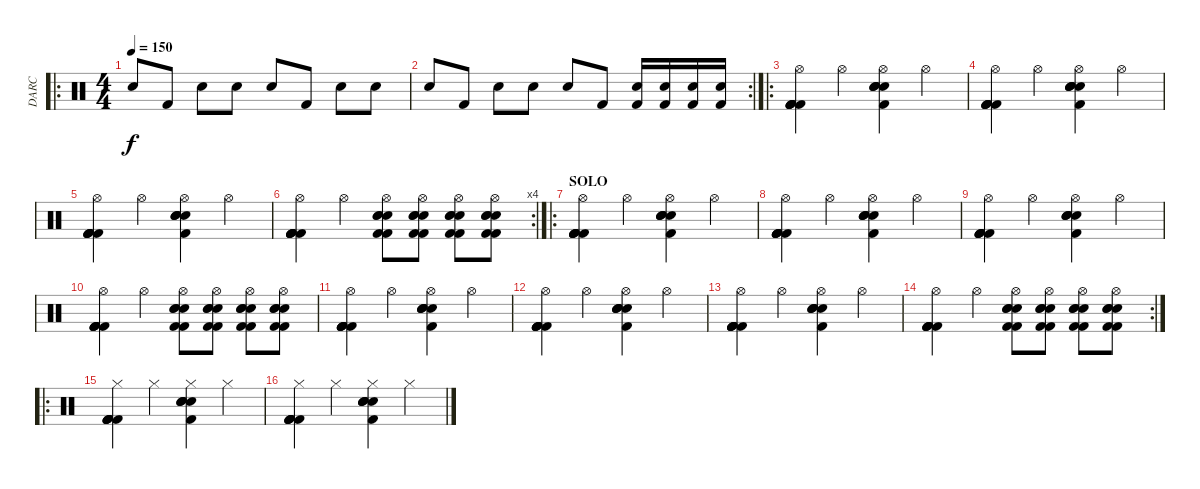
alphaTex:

\track ("DARC" "DARC") {instrument percussion}
\staff {score}
\articulation defaults
\ro
\ts (4 4)
\tempo 150
\clef neutral
\ks c "Electric Snare (hit)".8{dy f} "Kick (hit) 2".8 "Electric Snare (hit)".8 "Electric Snare (hit)".8 "Electric Snare (hit)".8 "Kick (hit) 2".8 "Electric Snare (hit)".8 "Electric Snare (hit)".8
|
\rc 2 "Electric Snare (hit)".8 "Kick (hit) 2".8 "Electric Snare (hit)".8 "Electric Snare (hit)".8 "Electric Snare (hit)".8 "Kick (hit) 2".8
("Kick (hit) 2" "Electric Snare (hit)").16 ("Kick (hit) 2" "Electric Snare (hit)").16 ("Kick (hit) 2" "Electric Snare (hit)").16 ("Kick (hit) 2" "Electric Snare (hit)").16 |
\ro
("Hi-Hat (open)" "Kick (hit) 2" "Kick (hit) 2" "Kick (hit) 2" "Kick (hit) 2" "Kick (hit) 2").4 "Hi-Hat (open)".4 ("Hi-Hat (open)" "Electric Snare (hit)" "Electric Snare (hit)" "Electric Snare (hit)" "Electric Snare (hit)" "Kick (hit) 2").4 "Hi-Hat (open)".4 |
("Hi-Hat (open)" "Kick (hit) 2" "Kick (hit) 2" "Kick (hit) 2" "Kick (hit) 2" "Kick (hit) 2").4 "Hi-Hat (open)".4 ("Hi-Hat (open)" "Electric Snare (hit)" "Electric Snare (hit)" "Electric Snare (hit)" "Electric Snare (hit)" "Kick (hit) 2").4 "Hi-Hat (open)".4 |
("Hi-Hat (open)" "Kick (hit) 2" "Kick (hit) 2" "Kick (hit) 2" "Kick (hit) 2" "Kick (hit) 2").4 "Hi-Hat (open)".4 ("Hi-Hat (open)" "Electric Snare (hit)" "Electric Snare (hit)" "Electric Snare (hit)" "Electric Snare (hit)" "Kick (hit) 2").4 "Hi-Hat (open)".4 |
\rc 4
("Hi-Hat (open)" "Kick (hit) 2" "Kick (hit) 2" "Kick (hit) 2" "Kick (hit) 2" "Kick (hit) 2").4 "Hi-Hat (open)".4 ("Hi-Hat (open)" "Electric Snare (hit)" "Electric Snare (hit)" "Electric Snare (hit)" "Kick (hit) 2" "Kick (hit) 2").8 ("Hi-Hat (open)" "Electric Snare (hit)" "Electric Snare (hit)" "Electric Snare (hit)" "Kick (hit) 2" "Kick (hit) 2").8 ("Hi-Hat (open)" "Electric Snare (hit)" "Electric Snare (hit)" "Electric Snare (hit)" "Kick (hit) 2" "Kick (hit) 2").8 ("Hi-Hat (open)" "Electric Snare (hit)" "Electric Snare (hit)" "Electric Snare (hit)" "Kick (hit) 2" "Kick (hit) 2").8 |
\ro
\section ("" "SOLO")
("Hi-Hat (open)" "Kick (hit) 2" "Kick (hit) 2" "Kick (hit) 2" "Kick (hit) 2" "Kick (hit) 2").4 "Hi-Hat (open)".4 ("Hi-Hat (open)" "Electric Snare (hit)" "Electric Snare (hit)" "Electric Snare (hit)" "Electric Snare (hit)" "Kick (hit) 2").4 "Hi-Hat (open)".4 |
("Hi-Hat (open)" "Kick (hit) 2" "Kick (hit) 2" "Kick (hit) 2" "Kick (hit) 2" "Kick (hit) 2").4 "Hi-Hat (open)".4 ("Hi-Hat (open)" "Electric Snare (hit)" "Electric Snare (hit)" "Electric Snare (hit)" "Electric Snare (hit)" "Kick (hit) 2").4 "Hi-Hat (open)".4 |
("Hi-Hat (open)" "Kick (hit) 2" "Kick (hit) 2" "Kick (hit) 2" "Kick (hit) 2" "Kick (hit) 2").4 "Hi-Hat (open)".4 ("Hi-Hat (open)" "Electric Snare (hit)" "Electric Snare (hit)" "Electric Snare (hit)" "Electric Snare (hit)" "Kick (hit) 2").4 "Hi-Hat (open)".4 |
("Hi-Hat (open)" "Kick (hit) 2" "Kick (hit) 2" "Kick (hit) 2" "Kick (hit) 2" "Kick (hit) 2").4 "Hi-Hat (open)".4 ("Hi-Hat (open)" "Electric Snare (hit)" "Electric Snare (hit)" "Electric Snare (hit)" "Kick (hit) 2" "Kick (hit) 2").8 ("Hi-Hat (open)" "Electric Snare (hit)" "Electric Snare (hit)" "Electric Snare (hit)" "Kick (hit) 2" "Kick (hit) 2").8 ("Hi-Hat (open)" "Electric Snare (hit)" "Electric Snare (hit)" "Electric Snare (hit)" "Kick (hit) 2" "Kick (hit) 2").8 ("Hi-Hat (open)" "Electric Snare (hit)" "Electric Snare (hit)" "Electric Snare (hit)" "Kick (hit) 2" "Kick (hit) 2").8 |
("Hi-Hat (open)" "Kick (hit) 2" "Kick (hit) 2" "Kick (hit) 2" "Kick (hit) 2" "Kick (hit) 2").4 "Hi-Hat (open)".4 ("Hi-Hat (open)" "Electric Snare (hit)" "Electric Snare (hit)" "Electric Snare (hit)" "Electric Snare (hit)" "Kick (hit) 2").4 "Hi-Hat (open)".4 |
("Hi-Hat (open)" "Kick (hit) 2" "Kick (hit) 2" "Kick (hit) 2" "Kick (hit) 2" "Kick (hit) 2").4 "Hi-Hat (open)".4 ("Hi-Hat (open)" "Electric Snare (hit)" "Electric Snare (hit)" "Electric Snare (hit)" "Electric Snare (hit)" "Kick (hit) 2").4 "Hi-Hat (open)".4 |
("Hi-Hat (open)" "Kick (hit) 2" "Kick (hit) 2" "Kick (hit) 2" "Kick (hit) 2" "Kick (hit) 2").4 "Hi-Hat (open)".4 ("Hi-Hat (open)" "Electric Snare (hit)" "Electric Snare (hit)" "Electric Snare (hit)" "Electric Snare (hit)" "Kick (hit) 2").4 "Hi-Hat (open)".4 |
\rc 2
("Hi-Hat (open)" "Kick (hit) 2" "Kick (hit) 2" "Kick (hit) 2" "Kick (hit) 2" "Kick (hit) 2").4 "Hi-Hat (open)".4 ("Hi-Hat (open)" "Electric Snare (hit)" "Electric Snare (hit)" "Electric Snare (hit)" "Kick (hit) 2" "Kick (hit) 2").8 ("Hi-Hat (open)" "Electric Snare (hit)" "Electric Snare (hit)" "Electric Snare (hit)" "Kick (hit) 2" "Kick (hit) 2").8 ("Hi-Hat (open)" "Electric Snare (hit)" "Electric Snare (hit)" "Electric Snare (hit)" "Kick (hit) 2" "Kick (hit) 2").8 ("Hi-Hat (open)" "Electric Snare (hit)" "Electric Snare (hit)" "Electric Snare (hit)" "Kick (hit) 2" "Kick (hit) 2").8 |
\ro
("Hi-Hat (closed)" "Kick (hit) 2" "Kick (hit) 2" "Kick (hit) 2" "Kick (hit) 2" "Kick (hit) 2").4 "Hi-Hat (closed)".4 ("Hi-Hat (closed)" "Electric Snare (hit)" "Electric Snare (hit)" "Electric Snare (hit)" "Electric Snare (hit)" "Kick (hit) 2").4 "Hi-Hat (closed)".4 |
("Hi-Hat (closed)" "Kick (hit) 2" "Kick (hit) 2" "Kick (hit) 2" "Kick (hit) 2" "Kick (hit) 2").4 "Hi-Hat (closed)".4 ("Hi-Hat (closed)" "Electric Snare (hit)" "Electric Snare (hit)" "Electric Snare (hit)" "Electric Snare (hit)" "Kick (hit) 2").4 "Hi-Hat (closed)".4
